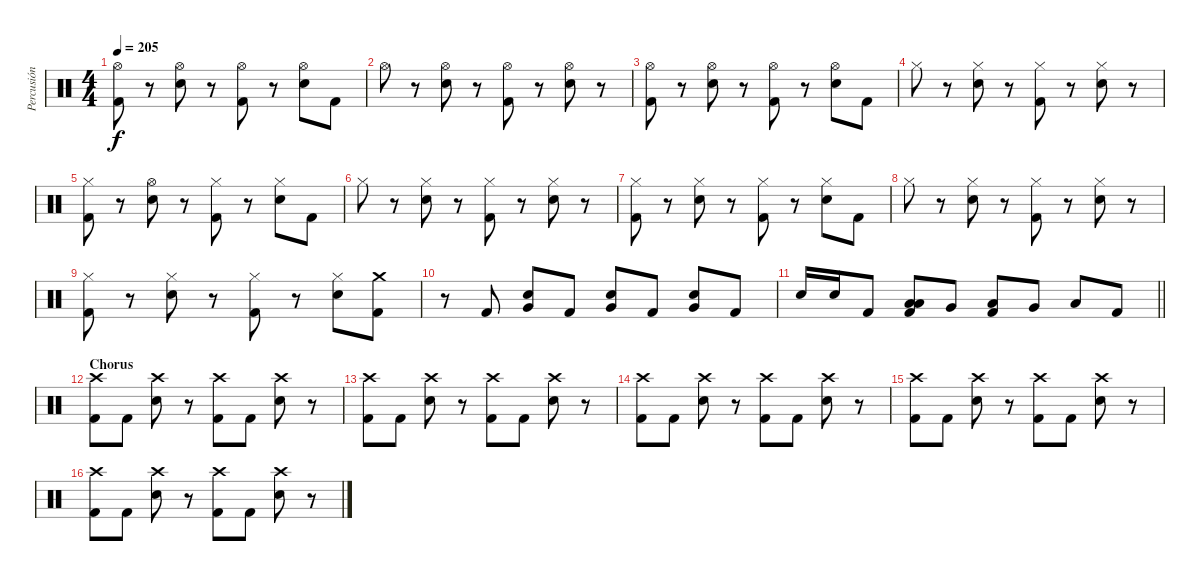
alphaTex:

\track ("Percusión" "Percusión") {instrument percussion}
\staff {score}
\articulation defaults
\ts (4 4)
\tempo 205
\clef neutral
\ks c
("Hi-Hat (open)" "Kick (hit) 2").8{dy f} r.8 ("Hi-Hat (open)" "Electric Snare (hit)").8 r.8 ("Hi-Hat (open)" "Kick (hit) 2").8 r.8 ("Hi-Hat (open)" "Electric Snare (hit)").8 "Kick (hit) 2".8 |
"Hi-Hat (open)".8 r.8 ("Hi-Hat (open)" "Electric Snare (hit)").8 r.8 ("Hi-Hat (open)" "Kick (hit) 2").8 r.8 ("Hi-Hat (open)" "Electric Snare (hit)").8 r.8 |
("Hi-Hat (open)" "Kick (hit) 2").8 r.8 ("Hi-Hat (open)" "Electric Snare (hit)").8 r.8 ("Hi-Hat (open)" "Kick (hit) 2").8 r.8 ("Hi-Hat (open)" "Electric Snare (hit)").8 "Kick (hit) 2".8 |
"Hi-Hat (closed)".8 r.8 ("Hi-Hat (closed)" "Electric Snare (hit)").8 r.8 ("Hi-Hat (closed)" "Kick (hit) 2").8 r.8 ("Hi-Hat (closed)" "Electric Snare (hit)").8 r.8 |
("Hi-Hat (closed)" "Kick (hit) 2").8 r.8 ("Hi-Hat (open)" "Electric Snare (hit)").8 r.8 ("Hi-Hat (closed)" "Kick (hit) 2").8 r.8 ("Hi-Hat (closed)" "Electric Snare (hit)").8 "Kick (hit) 2".8 |
"Hi-Hat (closed)".8 r.8 ("Hi-Hat (closed)" "Electric Snare (hit)").8 r.8 ("Hi-Hat (closed)" "Kick (hit) 2").8 r.8 ("Hi-Hat (closed)" "Electric Snare (hit)").8 r.8 |
("Hi-Hat (closed)" "Kick (hit) 2").8 r.8 ("Hi-Hat (closed)" "Electric Snare (hit)").8 r.8 ("Hi-Hat (closed)" "Kick (hit) 2").8 r.8 ("Hi-Hat (closed)" "Electric Snare (hit)").8 "Kick (hit) 2".8 |
"Hi-Hat (closed)".8 r.8 ("Hi-Hat (closed)" "Electric Snare (hit)").8 r.8 ("Hi-Hat (closed)" "Kick (hit) 2").8 r.8 ("Hi-Hat (closed)" "Electric Snare (hit)").8 r.8 |
("Hi-Hat (closed)" "Kick (hit) 2").8 r.8 ("Hi-Hat (closed)" "Electric Snare (hit)").8 r.8 ("Hi-Hat (closed)" "Kick (hit) 2").8 r.8 ("Hi-Hat (closed)" "Electric Snare (hit)").8 ("Crash medium (hit)" "Kick (hit) 2").8 |
r.8 "Kick (hit) 2".8 ("Very Low Tom (hit)" "Electric Snare (hit)").8 "Kick (hit) 2".8 ("Very Low Tom (hit)" "Electric Snare (hit)").8 "Kick (hit) 2".8 ("Very Low Tom (hit)" "Electric Snare (hit)").8 "Kick (hit) 2".8 |
\barLineRight lightlight "Electric Snare (hit)".16 "Electric Snare (hit)".16 "Kick (hit) 2".8
("Low Floor Tom (hit)" "Low Tom (hit)" "Kick (hit) 2").8 "Very Low Tom (hit)".8 ("Low Tom (hit)" "Kick (hit) 2").8 "Very Low Tom (hit)".8 "Low Floor Tom (hit)".8 "Kick (hit) 2".8 |
\section ("" "Chorus")
("Crash high (hit)" "Kick (hit) 2").8 "Kick (hit) 2".8 ("Crash high (hit)" "Electric Snare (hit)").8 r.8 ("Crash high (hit)" "Kick (hit) 2").8 "Kick (hit) 2".8 ("Crash high (hit)" "Electric Snare (hit)").8 r.8 |
("Crash high (hit)" "Kick (hit) 2").8 "Kick (hit) 2".8 ("Crash high (hit)" "Electric Snare (hit)").8 r.8 ("Crash high (hit)" "Kick (hit) 2").8 "Kick (hit) 2".8 ("Crash high (hit)" "Electric Snare (hit)").8 r.8 |
("Crash high (hit)" "Kick (hit) 2").8 "Kick (hit) 2".8 ("Crash high (hit)" "Electric Snare (hit)").8 r.8 ("Crash high (hit)" "Kick (hit) 2").8 "Kick (hit) 2".8 ("Crash high (hit)" "Electric Snare (hit)").8 r.8 |
("Crash high (hit)" "Kick (hit) 2").8 "Kick (hit) 2".8 ("Crash high (hit)" "Electric Snare (hit)").8 r.8 ("Crash high (hit)" "Kick (hit) 2").8 "Kick (hit) 2".8 ("Crash high (hit)" "Electric Snare (hit)").8 r.8 |
("Crash high (hit)" "Kick (hit) 2").8 "Kick (hit) 2".8 ("Crash high (hit)" "Electric Snare (hit)").8 r.8 ("Crash high (hit)" "Kick (hit) 2").8 "Kick (hit) 2".8 ("Crash high (hit)" "Electric Snare (hit)").8 r.8
